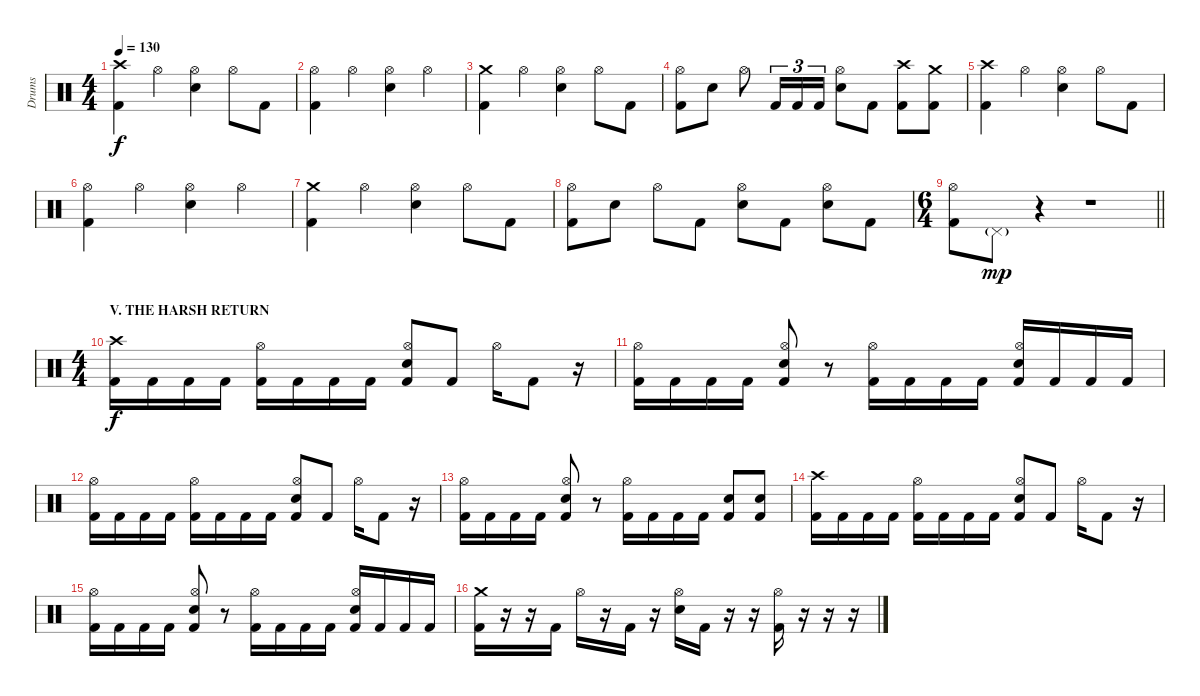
\track ("Drums" "Drums") {instrument percussion}
\staff {score}
\articulation defaults
\ts (4 4)
\tempo 130
\clef neutral
\ks c
("Crash high (hit)" "Kick (hit) 2").4{dy f} "Hi-Hat (open)".4 ("Hi-Hat (open)" "Snare (hit) 2").4 "Hi-Hat (open)".8 "Kick (hit) 2".8 |
("Hi-Hat (open)" "Kick (hit) 2").4 "Hi-Hat (open)".4 ("Hi-Hat (open)" "Snare (hit) 2").4 "Hi-Hat (open)".4 |
("Crash medium (hit)" "Kick (hit) 2").4 "Hi-Hat (open)".4 ("Hi-Hat (open)" "Snare (hit) 2").4 "Hi-Hat (open)".8 "Kick (hit) 2".8 |
("Hi-Hat (open)" "Kick (hit) 2").8 "Snare (hit) 2".8 "Hi-Hat (open)".8 "Kick (hit) 2".16{tu (3 2)} "Kick (hit) 2".16{tu (3 2)} "Kick (hit) 2".16{tu (3 2)} ("Hi-Hat (open)" "Snare (hit) 2").8 "Kick (hit) 2".8 ("Crash high (hit)" "Kick (hit) 2").8 ("Crash medium (hit)" "Kick (hit) 2").8 |
("Crash high (hit)" "Kick (hit) 2").4 "Hi-Hat (open)".4 ("Hi-Hat (open)" "Snare (hit) 2").4 "Hi-Hat (open)".8 "Kick (hit) 2".8 |
("Hi-Hat (open)" "Kick (hit) 2").4 "Hi-Hat (open)".4 ("Hi-Hat (open)" "Snare (hit) 2").4 "Hi-Hat (open)".4 |
("Crash medium (hit)" "Kick (hit) 2").4 "Hi-Hat (open)".4 ("Hi-Hat (open)" "Snare (hit) 2").4 "Hi-Hat (open)".8 "Kick (hit) 2".8 |
("Hi-Hat (open)" "Kick (hit) 2").8 "Snare (hit) 2".8 "Hi-Hat (open)".8 "Kick (hit) 2".8 ("Hi-Hat (open)" "Snare (hit) 2").8 "Kick (hit) 2".8 ("Hi-Hat (open)" "Snare (hit) 2").8 "Kick (hit) 2".8 |
\ts (6 4)
\barLineRight lightlight
("Hi-Hat (open)" "Kick (hit) 2").8 "Pedal Hi-Hat (hit)"{g}.8{dy mp} r.4 r.1 |
\ts (4 4)
\section ("" "V. THE HARSH RETURN")
("Crash high (hit)" "Kick (hit) 2").16{dy f} "Kick (hit) 2".16 "Kick (hit) 2".16 "Kick (hit) 2".16 ("Hi-Hat (open)" "Kick (hit) 2").16 "Kick (hit) 2".16 "Kick (hit) 2".16 "Kick (hit) 2".16 ("Hi-Hat (open)" "Snare (hit) 2" "Kick (hit) 2").8 "Kick (hit) 2".8 "Hi-Hat (open)".16 "Kick (hit) 2".8 r.16 |
("Hi-Hat (open)" "Kick (hit) 2").16 "Kick (hit) 2".16 "Kick (hit) 2".16 "Kick (hit) 2".16 ("Hi-Hat (open)" "Snare (hit) 2" "Kick (hit) 2").8 r.8 ("Hi-Hat (open)" "Kick (hit) 2").16 "Kick (hit) 2".16 "Kick (hit) 2".16 "Kick (hit) 2".16 ("Hi-Hat (open)" "Snare (hit) 2" "Kick (hit) 2").16 "Kick (hit) 2".16 "Kick (hit) 2".16 "Kick (hit) 2".16 |
("Hi-Hat (open)" "Kick (hit) 2").16 "Kick (hit) 2".16 "Kick (hit) 2".16 "Kick (hit) 2".16 ("Hi-Hat (open)" "Kick (hit) 2").16 "Kick (hit) 2".16 "Kick (hit) 2".16 "Kick (hit) 2".16 ("Hi-Hat (open)" "Snare (hit) 2" "Kick (hit) 2").8 "Kick (hit) 2".8 "Hi-Hat (open)".16 "Kick (hit) 2".8 r.16 |
("Hi-Hat (open)" "Kick (hit) 2").16 "Kick (hit) 2".16 "Kick (hit) 2".16 "Kick (hit) 2".16 ("Hi-Hat (open)" "Snare (hit) 2" "Kick (hit) 2").8 r.8 ("Hi-Hat (open)" "Kick (hit) 2").16 "Kick (hit) 2".16 "Kick (hit) 2".16 "Kick (hit) 2".16 ("Snare (hit) 2" "Kick (hit) 2").8 ("Snare (hit) 2" "Kick (hit) 2").8 |
("Crash high (hit)" "Kick (hit) 2").16 "Kick (hit) 2".16 "Kick (hit) 2".16 "Kick (hit) 2".16 ("Hi-Hat (open)" "Kick (hit) 2").16 "Kick (hit) 2".16 "Kick (hit) 2".16 "Kick (hit) 2".16 ("Hi-Hat (open)" "Snare (hit) 2" "Kick (hit) 2").8 "Kick (hit) 2".8 "Hi-Hat (open)".16 "Kick (hit) 2".8 r.16 |
("Hi-Hat (open)" "Kick (hit) 2").16 "Kick (hit) 2".16 "Kick (hit) 2".16 "Kick (hit) 2".16 ("Hi-Hat (open)" "Snare (hit) 2" "Kick (hit) 2").8 r.8 ("Hi-Hat (open)" "Kick (hit) 2").16 "Kick (hit) 2".16 "Kick (hit) 2".16 "Kick (hit) 2".16 ("Hi-Hat (open)" "Snare (hit) 2" "Kick (hit) 2").16 "Kick (hit) 2".16 "Kick (hit) 2".16 "Kick (hit) 2".16 |
("Crash medium (hit)" "Kick (hit) 2").16 r.16 r.16 "Kick (hit) 2".16 "Hi-Hat (open)".16 r.16 "Kick (hit) 2".16 r.16 ("Hi-Hat (open)" "Snare (hit) 2").16 "Kick (hit) 2".16 r.16 r.16 ("Hi-Hat (open)" "Kick (hit) 2").16 r.16 r.16 r.16
